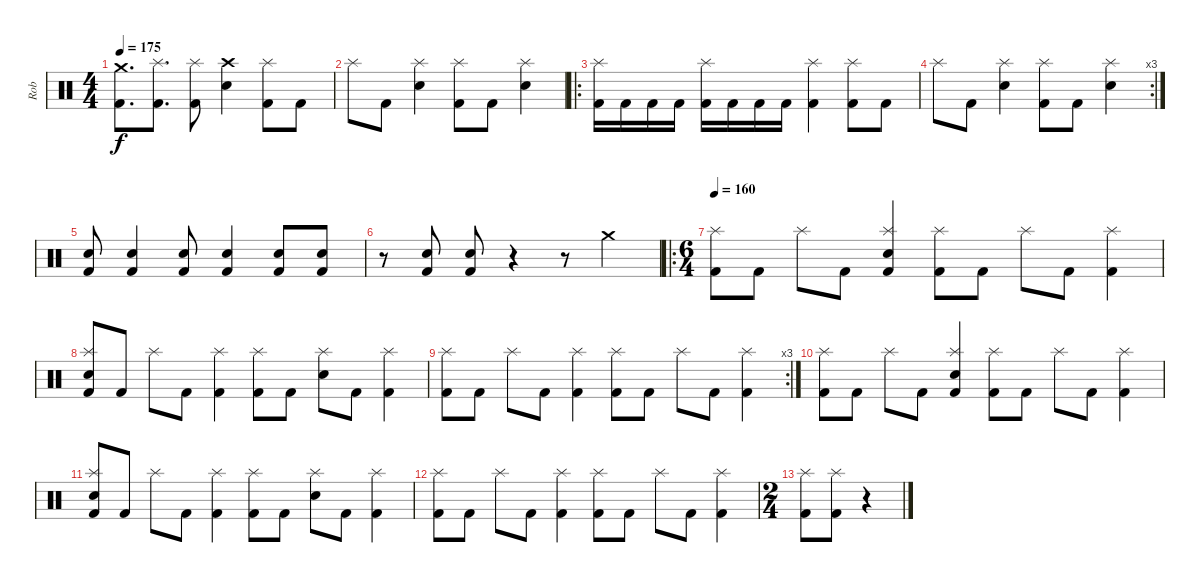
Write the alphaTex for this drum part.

\track ("Rob" "Rob") {instrument percussion}
\staff {score}
\articulation defaults
\ts (4 4)
\tempo 175
\clef neutral
\ks c
("Crash medium (hit)" "Kick (hit) 2").8{d dy f} ("Splash (hit)" "Kick (hit) 2").8{d} ("Splash (hit)" "Kick (hit) 2").8 ("Crash high (hit)" "Electric Snare (hit)").4 ("Splash (hit)" "Kick (hit) 2").8 "Kick (hit) 2".8 |
"Splash (hit)".8 "Kick (hit) 2".8 ("Splash (hit)" "Electric Snare (hit)").4 ("Splash (hit)" "Kick (hit) 2").8 "Kick (hit) 2".8 ("Splash (hit)" "Electric Snare (hit)").4 |
\ro
("Splash (hit)" "Kick (hit) 2").16 "Kick (hit) 2".16 "Kick (hit) 2".16 "Kick (hit) 2".16 ("Splash (hit)" "Kick (hit) 2").16 "Kick (hit) 2".16 "Kick (hit) 2".16 "Kick (hit) 2".16 ("Splash (hit)" "Kick (hit) 2").4 ("Splash (hit)" "Kick (hit) 2").8 "Kick (hit) 2".8 |
\rc 3 "Splash (hit)".8 "Kick (hit) 2".8
("Splash (hit)" "Electric Snare (hit)").4 ("Splash (hit)" "Kick (hit) 2").8 "Kick (hit) 2".8 ("Splash (hit)" "Electric Snare (hit)").4 |
("Electric Snare (hit)" "Kick (hit) 2").8 ("Electric Snare (hit)" "Kick (hit) 2").4 ("Electric Snare (hit)" "Kick (hit) 2").8 ("Electric Snare (hit)" "Kick (hit) 2").4 ("Electric Snare (hit)" "Kick (hit) 2").8 ("Electric Snare (hit)" "Kick (hit) 2").8 |
r.8 ("Electric Snare (hit)" "Kick (hit) 2").8 ("Electric Snare (hit)" "Kick (hit) 2").8 r.4 r.8 "Crash medium (hit)".4 |
\ro
\ts (6 4)
\tempo 160
("Splash (hit)" "Kick (hit) 2").8{volume 16} "Kick (hit) 2".8 "Splash (hit)".8 "Kick (hit) 2".8 ("Splash (hit)" "Electric Snare (hit)" "Kick (hit) 2").4 ("Splash (hit)" "Kick (hit) 2").8 "Kick (hit) 2".8 "Splash (hit)".8 "Kick (hit) 2".8 ("Splash (hit)" "Kick (hit) 2").4 |
("Splash (hit)" "Electric Snare (hit)" "Kick (hit) 2").8 "Kick (hit) 2".8 "Splash (hit)".8 "Kick (hit) 2".8 ("Splash (hit)" "Kick (hit) 2").4 ("Splash (hit)" "Kick (hit) 2").8 "Kick (hit) 2".8 ("Splash (hit)" "Electric Snare (hit)").8 "Kick (hit) 2".8 ("Splash (hit)" "Kick (hit) 2").4 |
\rc 3
("Splash (hit)" "Kick (hit) 2").8 "Kick (hit) 2".8 "Splash (hit)".8 "Kick (hit) 2".8 ("Splash (hit)" "Kick (hit) 2").4 ("Splash (hit)" "Kick (hit) 2").8 "Kick (hit) 2".8 "Splash (hit)".8 "Kick (hit) 2".8 ("Splash (hit)" "Kick (hit) 2").4 |
("Splash (hit)" "Kick (hit) 2").8{volume 16} "Kick (hit) 2".8 "Splash (hit)".8 "Kick (hit) 2".8 ("Splash (hit)" "Electric Snare (hit)" "Kick (hit) 2").4 ("Splash (hit)" "Kick (hit) 2").8 "Kick (hit) 2".8 "Splash (hit)".8 "Kick (hit) 2".8 ("Splash (hit)" "Kick (hit) 2").4 |
("Splash (hit)" "Electric Snare (hit)" "Kick (hit) 2").8 "Kick (hit) 2".8 "Splash (hit)".8 "Kick (hit) 2".8 ("Splash (hit)" "Kick (hit) 2").4 ("Splash (hit)" "Kick (hit) 2").8 "Kick (hit) 2".8 ("Splash (hit)" "Electric Snare (hit)").8 "Kick (hit) 2".8 ("Splash (hit)" "Kick (hit) 2").4 |
("Splash (hit)" "Kick (hit) 2").8 "Kick (hit) 2".8 "Splash (hit)".8 "Kick (hit) 2".8 ("Splash (hit)" "Kick (hit) 2").4 ("Splash (hit)" "Kick (hit) 2").8 "Kick (hit) 2".8 "Splash (hit)".8 "Kick (hit) 2".8 ("Splash (hit)" "Kick (hit) 2").4 |
\ts (2 4)
("Splash (hit)" "Kick (hit) 2").8 ("Splash (hit)" "Kick (hit) 2").8 r.4
